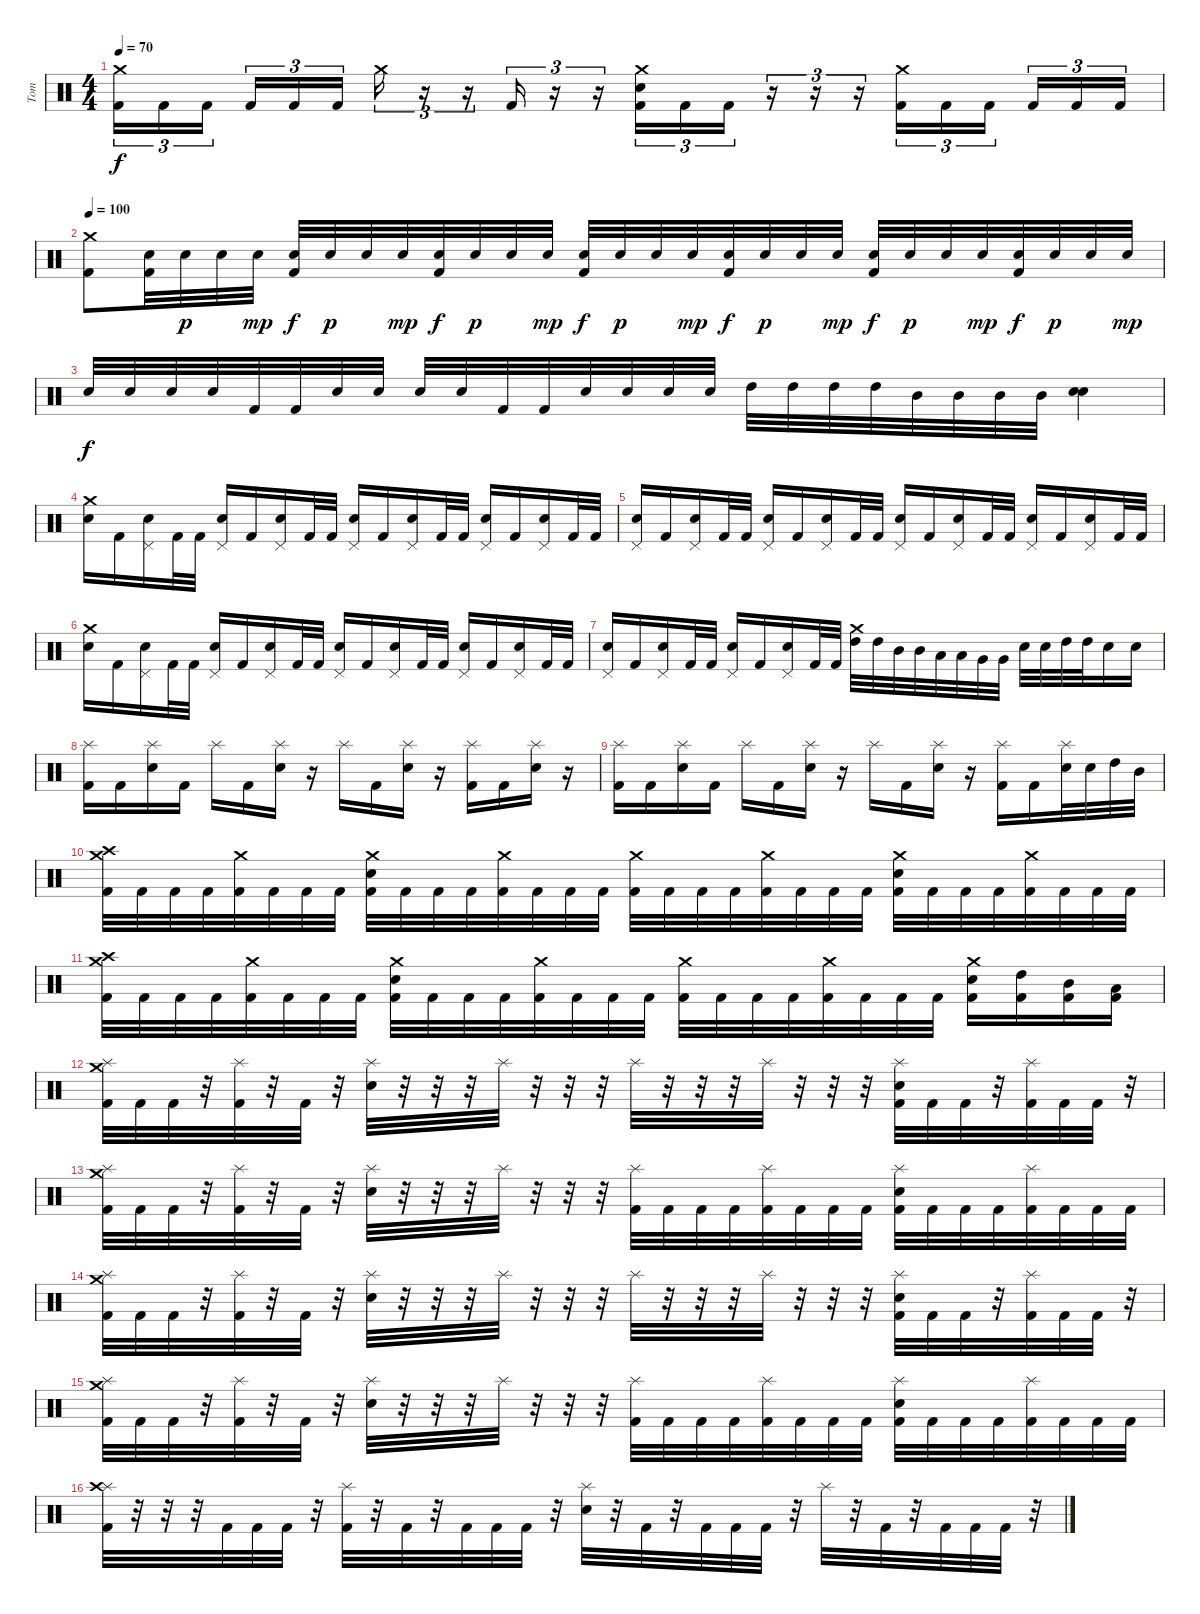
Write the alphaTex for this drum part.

\track ("Tom" "Tom") {instrument percussion}
\staff {score}
\articulation defaults
\ts (4 4)
\tempo 70
\clef neutral
\ks c
("Crash medium (hit)" "Kick (hit) 2").16{tu (3 2) dy f} "Kick (hit) 2".16{tu (3 2)} "Kick (hit) 2".16{tu (3 2) beam splitsecondary} "Kick (hit) 2".16{tu (3 2)} "Kick (hit) 2".16{tu (3 2)} "Kick (hit) 2".16{tu (3 2)} "Crash medium (hit)".16{tu (3 2)} r.16{tu (3 2)} r.16{tu (3 2)} "Kick (hit) 2".16{tu (3 2)} r.16{tu (3 2)} r.16{tu (3 2)} ("Crash medium (hit)" "Electric Snare (hit)" "Kick (hit) 2").16{tu (3 2)} "Kick (hit) 2".16{tu (3 2)} "Kick (hit) 2".16{tu (3 2)} r.16{tu (3 2)} r.16{tu (3 2)} r.16{tu (3 2)} ("Crash medium (hit)" "Kick (hit) 2").16{tu (3 2)} "Kick (hit) 2".16{tu (3 2)} "Kick (hit) 2".16{tu (3 2) beam splitsecondary} "Kick (hit) 2".16{tu (3 2)} "Kick (hit) 2".16{tu (3 2)} "Kick (hit) 2".16{tu (3 2)} |
\tempo 100
("Crash medium (hit)" "Kick (hit) 2").8 ("Electric Snare (hit)" "Kick (hit) 2").32 "Electric Snare (hit)".32{dy p} "Electric Snare (hit)".32 "Electric Snare (hit)".32{dy mp} ("Electric Snare (hit)" "Kick (hit) 2").32{dy f} "Electric Snare (hit)".32{dy p} "Electric Snare (hit)".32 "Electric Snare (hit)".32{dy mp} ("Electric Snare (hit)" "Kick (hit) 2").32{dy f} "Electric Snare (hit)".32{dy p} "Electric Snare (hit)".32 "Electric Snare (hit)".32{dy mp} ("Electric Snare (hit)" "Kick (hit) 2").32{dy f} "Electric Snare (hit)".32{dy p} "Electric Snare (hit)".32 "Electric Snare (hit)".32{dy mp} ("Electric Snare (hit)" "Kick (hit) 2").32{dy f} "Electric Snare (hit)".32{dy p} "Electric Snare (hit)".32 "Electric Snare (hit)".32{dy mp} ("Electric Snare (hit)" "Kick (hit) 2").32{dy f} "Electric Snare (hit)".32{dy p} "Electric Snare (hit)".32 "Electric Snare (hit)".32{dy mp} ("Electric Snare (hit)" "Kick (hit) 2").32{dy f} "Electric Snare (hit)".32{dy p} "Electric Snare (hit)".32 "Electric Snare (hit)".32{dy mp} |
"Electric Snare (hit)".32{dy f} "Electric Snare (hit)".32 "Electric Snare (hit)".32 "Electric Snare (hit)".32 "Kick (hit) 2".32 "Kick (hit) 2".32 "Electric Snare (hit)".32 "Electric Snare (hit)".32 "Electric Snare (hit)".32 "Electric Snare (hit)".32 "Kick (hit) 2".32 "Kick (hit) 2".32 "Electric Snare (hit)".32 "Electric Snare (hit)".32 "Electric Snare (hit)".32 "Electric Snare (hit)".32 "High Tom (hit)".32 "High Tom (hit)".32 "High Tom (hit)".32 "High Tom (hit)".32 "Mid Tom (hit)".32 "Mid Tom (hit)".32 "Mid Tom (hit)".32 "Mid Tom (hit)".32 ("Electric Snare (hit)" "Electric Snare (hit)").4{bd 60} |
("Crash medium (hit)" "Electric Snare (hit)").16 "Kick (hit) 2".16 ("Pedal Hi-Hat (hit)" "Electric Snare (hit)").16 "Kick (hit) 2".32 "Kick (hit) 2".32 ("Pedal Hi-Hat (hit)" "Electric Snare (hit)").16 "Kick (hit) 2".16 ("Pedal Hi-Hat (hit)" "Electric Snare (hit)").16 "Kick (hit) 2".32 "Kick (hit) 2".32 ("Pedal Hi-Hat (hit)" "Electric Snare (hit)").16 "Kick (hit) 2".16 ("Pedal Hi-Hat (hit)" "Electric Snare (hit)").16 "Kick (hit) 2".32 "Kick (hit) 2".32 ("Pedal Hi-Hat (hit)" "Electric Snare (hit)").16 "Kick (hit) 2".16 ("Pedal Hi-Hat (hit)" "Electric Snare (hit)").16 "Kick (hit) 2".32 "Kick (hit) 2".32 |
("Pedal Hi-Hat (hit)" "Electric Snare (hit)").16 "Kick (hit) 2".16 ("Pedal Hi-Hat (hit)" "Electric Snare (hit)").16 "Kick (hit) 2".32 "Kick (hit) 2".32 ("Pedal Hi-Hat (hit)" "Electric Snare (hit)").16 "Kick (hit) 2".16 ("Pedal Hi-Hat (hit)" "Electric Snare (hit)").16 "Kick (hit) 2".32 "Kick (hit) 2".32 ("Pedal Hi-Hat (hit)" "Electric Snare (hit)").16 "Kick (hit) 2".16 ("Pedal Hi-Hat (hit)" "Electric Snare (hit)").16 "Kick (hit) 2".32 "Kick (hit) 2".32 ("Pedal Hi-Hat (hit)" "Electric Snare (hit)").16 "Kick (hit) 2".16 ("Pedal Hi-Hat (hit)" "Electric Snare (hit)").16 "Kick (hit) 2".32 "Kick (hit) 2".32 |
("Crash medium (hit)" "Electric Snare (hit)").16 "Kick (hit) 2".16 ("Pedal Hi-Hat (hit)" "Electric Snare (hit)").16 "Kick (hit) 2".32 "Kick (hit) 2".32 ("Pedal Hi-Hat (hit)" "Electric Snare (hit)").16 "Kick (hit) 2".16 ("Pedal Hi-Hat (hit)" "Electric Snare (hit)").16 "Kick (hit) 2".32 "Kick (hit) 2".32 ("Pedal Hi-Hat (hit)" "Electric Snare (hit)").16 "Kick (hit) 2".16 ("Pedal Hi-Hat (hit)" "Electric Snare (hit)").16 "Kick (hit) 2".32 "Kick (hit) 2".32 ("Pedal Hi-Hat (hit)" "Electric Snare (hit)").16 "Kick (hit) 2".16 ("Pedal Hi-Hat (hit)" "Electric Snare (hit)").16 "Kick (hit) 2".32 "Kick (hit) 2".32 |
("Pedal Hi-Hat (hit)" "Electric Snare (hit)").16 "Kick (hit) 2".16 ("Pedal Hi-Hat (hit)" "Electric Snare (hit)").16 "Kick (hit) 2".32 "Kick (hit) 2".32 ("Pedal Hi-Hat (hit)" "Electric Snare (hit)").16 "Kick (hit) 2".16 ("Pedal Hi-Hat (hit)" "Electric Snare (hit)").16 "Kick (hit) 2".32 "Kick (hit) 2".32 ("Crash medium (hit)" "High Tom (hit)").32 "High Tom (hit)".32 "Mid Tom (hit)".32 "Mid Tom (hit)".32 "Low Tom (hit)".32 "Low Tom (hit)".32 "Very Low Tom (hit)".32 "Very Low Tom (hit)".32 "Electric Snare (hit)".32 "Electric Snare (hit)".32 "High Tom (hit)".32 "High Tom (hit)".32 "Electric Snare (hit)".16 "Electric Snare (hit)".16 |
("Splash (hit)" "Kick (hit) 2").16 "Kick (hit) 2".16 ("Splash (hit)" "Electric Snare (hit)").16 "Kick (hit) 2".16 "Splash (hit)".16 "Kick (hit) 2".16 ("Splash (hit)" "Electric Snare (hit)").16 r.16 "Splash (hit)".16 "Kick (hit) 2".16 ("Splash (hit)" "Electric Snare (hit)").16 r.16 ("Splash (hit)" "Kick (hit) 2").16 "Kick (hit) 2".16 ("Splash (hit)" "Electric Snare (hit)").16 r.16 |
("Splash (hit)" "Kick (hit) 2").16 "Kick (hit) 2".16 ("Splash (hit)" "Electric Snare (hit)").16 "Kick (hit) 2".16 "Splash (hit)".16 "Kick (hit) 2".16 ("Splash (hit)" "Electric Snare (hit)").16 r.16 "Splash (hit)".16 "Kick (hit) 2".16 ("Splash (hit)" "Electric Snare (hit)").16 r.16 ("Splash (hit)" "Kick (hit) 2").16 "Kick (hit) 2".16 ("Splash (hit)" "Electric Snare (hit)").32 "Electric Snare (hit)".32 "High Tom (hit)".32 "Mid Tom (hit)".32 |
("Crash medium (hit)" "Crash high (hit)" "Kick (hit) 2").32 "Kick (hit) 2".32 "Kick (hit) 2".32 "Kick (hit) 2".32 ("Crash medium (hit)" "Kick (hit) 2").32 "Kick (hit) 2".32 "Kick (hit) 2".32 "Kick (hit) 2".32 ("Crash medium (hit)" "Electric Snare (hit)" "Kick (hit) 2").32 "Kick (hit) 2".32 "Kick (hit) 2".32 "Kick (hit) 2".32 ("Crash medium (hit)" "Kick (hit) 2").32 "Kick (hit) 2".32 "Kick (hit) 2".32 "Kick (hit) 2".32 ("Crash medium (hit)" "Kick (hit) 2").32 "Kick (hit) 2".32 "Kick (hit) 2".32 "Kick (hit) 2".32 ("Crash medium (hit)" "Kick (hit) 2").32 "Kick (hit) 2".32 "Kick (hit) 2".32 "Kick (hit) 2".32 ("Crash medium (hit)" "Electric Snare (hit)" "Kick (hit) 2").32 "Kick (hit) 2".32 "Kick (hit) 2".32 "Kick (hit) 2".32 ("Crash medium (hit)" "Kick (hit) 2").32 "Kick (hit) 2".32 "Kick (hit) 2".32 "Kick (hit) 2".32 |
("Crash medium (hit)" "Crash high (hit)" "Kick (hit) 2").32 "Kick (hit) 2".32 "Kick (hit) 2".32 "Kick (hit) 2".32 ("Crash medium (hit)" "Kick (hit) 2").32 "Kick (hit) 2".32 "Kick (hit) 2".32 "Kick (hit) 2".32 ("Crash medium (hit)" "Electric Snare (hit)" "Kick (hit) 2").32 "Kick (hit) 2".32 "Kick (hit) 2".32 "Kick (hit) 2".32 ("Crash medium (hit)" "Kick (hit) 2").32 "Kick (hit) 2".32 "Kick (hit) 2".32 "Kick (hit) 2".32 ("Crash medium (hit)" "Kick (hit) 2").32 "Kick (hit) 2".32 "Kick (hit) 2".32 "Kick (hit) 2".32 ("Crash medium (hit)" "Kick (hit) 2").32 "Kick (hit) 2".32 "Kick (hit) 2".32 "Kick (hit) 2".32 ("Crash medium (hit)" "Electric Snare (hit)" "Kick (hit) 2").16 ("High Tom (hit)" "Kick (hit) 2").16 ("Mid Tom (hit)" "Kick (hit) 2").16 ("Low Tom (hit)" "Kick (hit) 2").16 |
("Splash (hit)" "Crash medium (hit)" "Kick (hit) 2").32 "Kick (hit) 2".32 "Kick (hit) 2".32 r.32 ("Splash (hit)" "Kick (hit) 2").32 r.32 "Kick (hit) 2".32 r.32 ("Splash (hit)" "Electric Snare (hit)").32 r.32 r.32 r.32 "Splash (hit)".32 r.32 r.32 r.32 "Splash (hit)".32 r.32 r.32 r.32 "Splash (hit)".32 r.32 r.32 r.32 ("Splash (hit)" "Electric Snare (hit)" "Kick (hit) 2").32 "Kick (hit) 2".32 "Kick (hit) 2".32 r.32 ("Splash (hit)" "Kick (hit) 2").32 "Kick (hit) 2".32 "Kick (hit) 2".32 r.32 |
("Splash (hit)" "Crash medium (hit)" "Kick (hit) 2").32 "Kick (hit) 2".32 "Kick (hit) 2".32 r.32 ("Splash (hit)" "Kick (hit) 2").32 r.32 "Kick (hit) 2".32 r.32 ("Splash (hit)" "Electric Snare (hit)").32 r.32 r.32 r.32 "Splash (hit)".32 r.32 r.32 r.32 ("Splash (hit)" "Kick (hit) 2").32 "Kick (hit) 2".32 "Kick (hit) 2".32 "Kick (hit) 2".32 ("Splash (hit)" "Kick (hit) 2").32 "Kick (hit) 2".32 "Kick (hit) 2".32 "Kick (hit) 2".32 ("Splash (hit)" "Electric Snare (hit)" "Kick (hit) 2").32 "Kick (hit) 2".32 "Kick (hit) 2".32 "Kick (hit) 2".32 ("Splash (hit)" "Kick (hit) 2").32 "Kick (hit) 2".32 "Kick (hit) 2".32 "Kick (hit) 2".32 |
("Splash (hit)" "Crash medium (hit)" "Kick (hit) 2").32 "Kick (hit) 2".32 "Kick (hit) 2".32 r.32 ("Splash (hit)" "Kick (hit) 2").32 r.32 "Kick (hit) 2".32 r.32 ("Splash (hit)" "Electric Snare (hit)").32 r.32 r.32 r.32 "Splash (hit)".32 r.32 r.32 r.32 "Splash (hit)".32 r.32 r.32 r.32 "Splash (hit)".32 r.32 r.32 r.32 ("Splash (hit)" "Electric Snare (hit)" "Kick (hit) 2").32 "Kick (hit) 2".32 "Kick (hit) 2".32 r.32 ("Splash (hit)" "Kick (hit) 2").32 "Kick (hit) 2".32 "Kick (hit) 2".32 r.32 |
("Splash (hit)" "Crash medium (hit)" "Kick (hit) 2").32 "Kick (hit) 2".32 "Kick (hit) 2".32 r.32 ("Splash (hit)" "Kick (hit) 2").32 r.32 "Kick (hit) 2".32 r.32 ("Splash (hit)" "Electric Snare (hit)").32 r.32 r.32 r.32 "Splash (hit)".32 r.32 r.32 r.32 ("Splash (hit)" "Kick (hit) 2").32 "Kick (hit) 2".32 "Kick (hit) 2".32 "Kick (hit) 2".32 ("Splash (hit)" "Kick (hit) 2").32 "Kick (hit) 2".32 "Kick (hit) 2".32 "Kick (hit) 2".32 ("Splash (hit)" "Electric Snare (hit)" "Kick (hit) 2").32 "Kick (hit) 2".32 "Kick (hit) 2".32 "Kick (hit) 2".32 ("Splash (hit)" "Kick (hit) 2").32 "Kick (hit) 2".32 "Kick (hit) 2".32 "Kick (hit) 2".32 |
("Splash (hit)" "Crash high (hit)" "Kick (hit) 2").32 r.32 r.32 r.32 "Kick (hit) 2".32 "Kick (hit) 2".32 "Kick (hit) 2".32 r.32 ("Splash (hit)" "Kick (hit) 2").32 r.32 "Kick (hit) 2".32 r.32 "Kick (hit) 2".32 "Kick (hit) 2".32 "Kick (hit) 2".32 r.32 ("Splash (hit)" "Electric Snare (hit)").32 r.32 "Kick (hit) 2".32 r.32 "Kick (hit) 2".32 "Kick (hit) 2".32 "Kick (hit) 2".32 r.32 "Splash (hit)".32 r.32 "Kick (hit) 2".32 r.32 "Kick (hit) 2".32 "Kick (hit) 2".32 "Kick (hit) 2".32 r.32
